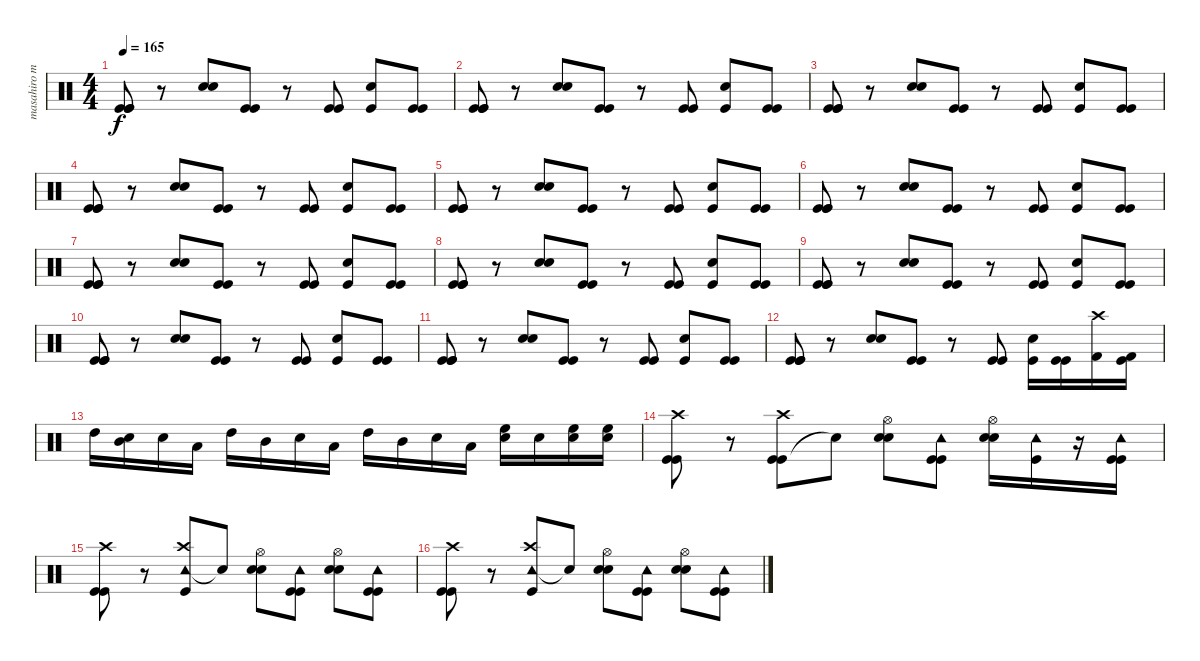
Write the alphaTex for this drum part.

\track ("masahiro muta" "masahiro m") {instrument percussion}
\staff {score}
\articulation defaults
\ts (4 4)
\tempo 165
\clef neutral
\ks c
("Kick (hit)" "Kick (hit)" "Kick (hit)").8{dy f} r.8 ("Electric Snare (hit)" "Electric Snare (hit)").8 ("Kick (hit)" "Kick (hit)").8 r.8 ("Kick (hit)" "Kick (hit)").8 ("Electric Snare (hit)" "Kick (hit)").8 ("Kick (hit)" "Kick (hit)").8 |
("Kick (hit)" "Kick (hit)" "Kick (hit)").8 r.8 ("Electric Snare (hit)" "Electric Snare (hit)").8 ("Kick (hit)" "Kick (hit)").8 r.8 ("Kick (hit)" "Kick (hit)").8 ("Electric Snare (hit)" "Kick (hit)").8 ("Kick (hit)" "Kick (hit)").8 |
("Kick (hit)" "Kick (hit)" "Kick (hit)").8 r.8 ("Electric Snare (hit)" "Electric Snare (hit)").8 ("Kick (hit)" "Kick (hit)").8 r.8 ("Kick (hit)" "Kick (hit)").8 ("Electric Snare (hit)" "Kick (hit)").8 ("Kick (hit)" "Kick (hit)").8 |
("Kick (hit)" "Kick (hit)" "Kick (hit)").8 r.8 ("Electric Snare (hit)" "Electric Snare (hit)").8 ("Kick (hit)" "Kick (hit)").8 r.8 ("Kick (hit)" "Kick (hit)").8 ("Electric Snare (hit)" "Kick (hit)").8 ("Kick (hit)" "Kick (hit)").8 |
("Kick (hit)" "Kick (hit)" "Kick (hit)").8 r.8 ("Electric Snare (hit)" "Electric Snare (hit)").8 ("Kick (hit)" "Kick (hit)").8 r.8 ("Kick (hit)" "Kick (hit)").8 ("Electric Snare (hit)" "Kick (hit)").8 ("Kick (hit)" "Kick (hit)").8 |
("Kick (hit)" "Kick (hit)" "Kick (hit)").8 r.8 ("Electric Snare (hit)" "Electric Snare (hit)").8 ("Kick (hit)" "Kick (hit)").8 r.8 ("Kick (hit)" "Kick (hit)").8 ("Electric Snare (hit)" "Kick (hit)").8 ("Kick (hit)" "Kick (hit)").8 |
("Kick (hit)" "Kick (hit)" "Kick (hit)").8 r.8 ("Electric Snare (hit)" "Electric Snare (hit)").8 ("Kick (hit)" "Kick (hit)").8 r.8 ("Kick (hit)" "Kick (hit)").8 ("Electric Snare (hit)" "Kick (hit)").8 ("Kick (hit)" "Kick (hit)").8 |
("Kick (hit)" "Kick (hit)" "Kick (hit)").8 r.8 ("Electric Snare (hit)" "Electric Snare (hit)").8 ("Kick (hit)" "Kick (hit)").8 r.8 ("Kick (hit)" "Kick (hit)").8 ("Electric Snare (hit)" "Kick (hit)").8 ("Kick (hit)" "Kick (hit)").8 |
("Kick (hit)" "Kick (hit)" "Kick (hit)").8 r.8 ("Electric Snare (hit)" "Electric Snare (hit)").8 ("Kick (hit)" "Kick (hit)").8 r.8 ("Kick (hit)" "Kick (hit)").8 ("Electric Snare (hit)" "Kick (hit)").8 ("Kick (hit)" "Kick (hit)").8 |
("Kick (hit)" "Kick (hit)" "Kick (hit)").8 r.8 ("Electric Snare (hit)" "Electric Snare (hit)").8 ("Kick (hit)" "Kick (hit)").8 r.8 ("Kick (hit)" "Kick (hit)").8 ("Electric Snare (hit)" "Kick (hit)").8 ("Kick (hit)" "Kick (hit)").8 |
("Kick (hit)" "Kick (hit)" "Kick (hit)").8 r.8 ("Electric Snare (hit)" "Electric Snare (hit)").8 ("Kick (hit)" "Kick (hit)").8 r.8 ("Kick (hit)" "Kick (hit)").8 ("Electric Snare (hit)" "Kick (hit)").8 ("Kick (hit)" "Kick (hit)").8 |
("Kick (hit)" "Kick (hit)" "Kick (hit)").8 r.8 ("Electric Snare (hit)" "Electric Snare (hit)").8 ("Kick (hit)" "Kick (hit)").8 r.8 ("Kick (hit)" "Kick (hit)").8 ("Electric Snare (hit)" "Kick (hit)").16 ("Kick (hit)" "Kick (hit)").16 ("Crash high (hit)" "Kick (hit) 2").16 ("Kick (hit)" "Kick (hit) 2").16 |
"High Tom (hit)".16 ("Mid Tom (hit)" "Snare (hit) 2").16 "Snare (hit) 2".16 "Low Tom (hit)".16 "High Tom (hit)".16 "Mid Tom (hit)".16 "Snare (hit) 2".16 "Low Tom (hit)".16 "High Tom (hit)".16 "Mid Tom (hit)".16 "Snare (hit) 2".16 "Low Tom (hit)".16 ("Snare (hit) 2" "High Floor Tom (hit)").16 "Snare (hit) 2".16 ("Snare (hit) 2" "High Floor Tom (hit)").16 ("Snare (hit) 2" "High Floor Tom (hit)").16 |
("Kick (hit)" "Crash high (hit)" "Kick (hit)").8 r.8 ("Kick (hit)" "Crash high (hit)" "Kick (hit)").8 "Snare (hit)"{t}.8 ("Electric Snare (hit)" "Hi-Hat (open)" "Electric Snare (hit)").8 ("Kick (hit)" "Tambourine (hit)" "Kick (hit)").8 ("Electric Snare (hit)" "Hi-Hat (open)" "Electric Snare (hit)").16 ("Kick (hit)" "Tambourine (hit)").16 r.16 ("Tambourine (hit)" "Kick (hit)" "Kick (hit)").16 |
("Kick (hit)" "Kick (hit)" "Crash high (hit)").8 r.8 ("Tambourine (hit)" "Kick (hit)" "Crash high (hit)").8 "Snare (hit)"{t}.8 ("Electric Snare (hit)" "Hi-Hat (open)" "Electric Snare (hit)").8 ("Kick (hit)" "Tambourine (hit)" "Kick (hit)").8 ("Hi-Hat (open)" "Electric Snare (hit)" "Electric Snare (hit)").8 ("Kick (hit)" "Tambourine (hit)" "Kick (hit)").8 |
("Kick (hit)" "Kick (hit)" "Crash high (hit)").8 r.8 ("Tambourine (hit)" "Kick (hit)" "Crash high (hit)").8 "Snare (hit)"{t}.8 ("Electric Snare (hit)" "Hi-Hat (open)" "Electric Snare (hit)").8 ("Kick (hit)" "Tambourine (hit)" "Kick (hit)").8 ("Hi-Hat (open)" "Electric Snare (hit)" "Electric Snare (hit)").8 ("Kick (hit)" "Tambourine (hit)" "Kick (hit)").8
